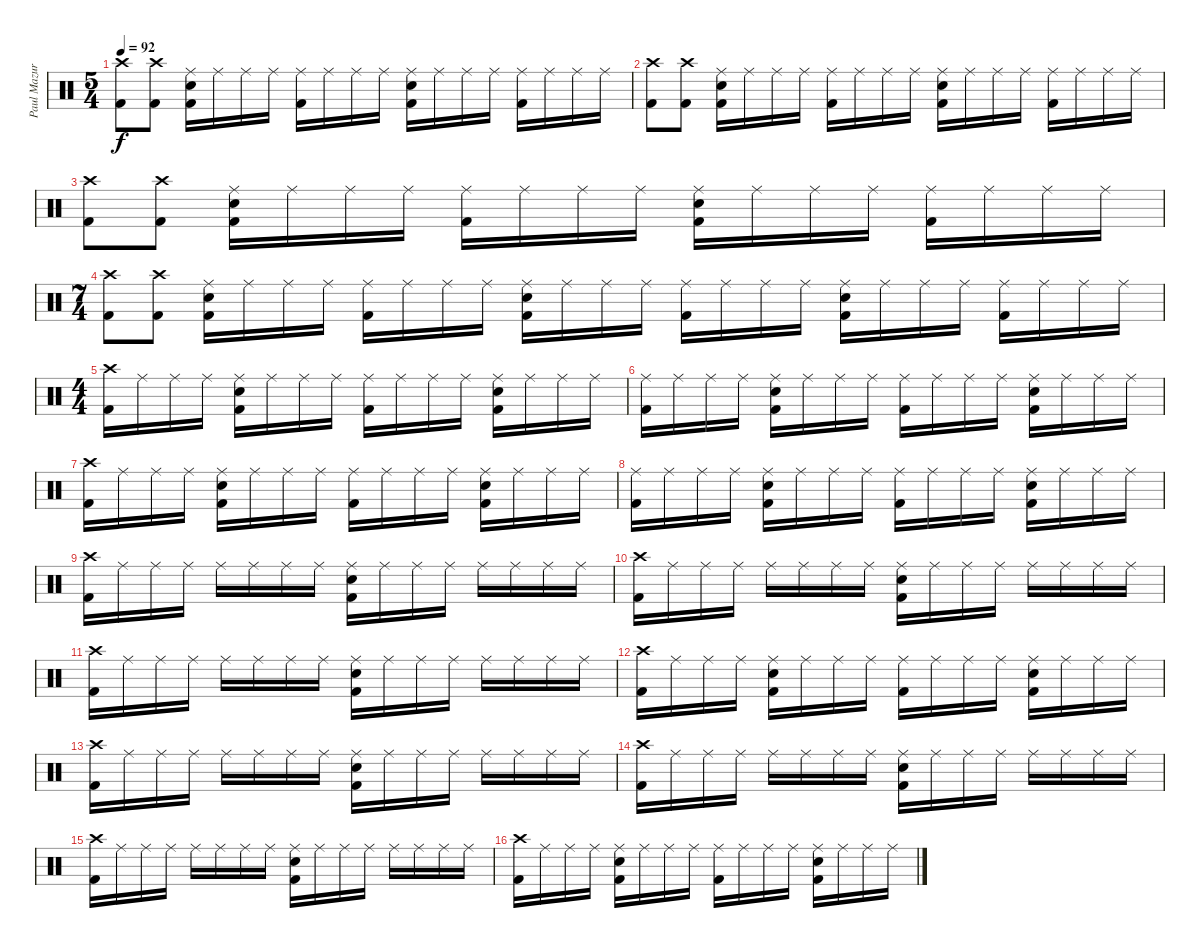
\track ("Paul Mazurkiewicz" "Paul Mazur") {instrument percussion}
\staff {score}
\articulation defaults
\ts (5 4)
\tempo 92
\clef neutral
\ks c
("Crash high (hit)" "Kick (hit) 2").8{dy f} ("Crash high (hit)" "Kick (hit) 2").8 ("Ride (middle)" "Snare (hit) 2" "Kick (hit) 2").16 "Ride (middle)".16 "Ride (middle)".16 "Ride (middle)".16 ("Ride (middle)" "Kick (hit) 2").16 "Ride (middle)".16 "Ride (middle)".16 "Ride (middle)".16 ("Ride (middle)" "Snare (hit) 2" "Kick (hit) 2").16 "Ride (middle)".16 "Ride (middle)".16 "Ride (middle)".16 ("Ride (middle)" "Kick (hit) 2").16 "Ride (middle)".16 "Ride (middle)".16 "Ride (middle)".16 |
("Crash high (hit)" "Kick (hit) 2").8 ("Crash high (hit)" "Kick (hit) 2").8 ("Ride (middle)" "Snare (hit) 2" "Kick (hit) 2").16 "Ride (middle)".16 "Ride (middle)".16 "Ride (middle)".16 ("Ride (middle)" "Kick (hit) 2").16 "Ride (middle)".16 "Ride (middle)".16 "Ride (middle)".16 ("Ride (middle)" "Snare (hit) 2" "Kick (hit) 2").16 "Ride (middle)".16 "Ride (middle)".16 "Ride (middle)".16 ("Ride (middle)" "Kick (hit) 2").16 "Ride (middle)".16 "Ride (middle)".16 "Ride (middle)".16 |
("Crash high (hit)" "Kick (hit) 2").8 ("Crash high (hit)" "Kick (hit) 2").8 ("Ride (middle)" "Snare (hit) 2" "Kick (hit) 2").16 "Ride (middle)".16 "Ride (middle)".16 "Ride (middle)".16 ("Ride (middle)" "Kick (hit) 2").16 "Ride (middle)".16 "Ride (middle)".16 "Ride (middle)".16 ("Ride (middle)" "Snare (hit) 2" "Kick (hit) 2").16 "Ride (middle)".16 "Ride (middle)".16 "Ride (middle)".16 ("Ride (middle)" "Kick (hit) 2").16 "Ride (middle)".16 "Ride (middle)".16 "Ride (middle)".16 |
\ts (7 4)
("Crash high (hit)" "Kick (hit) 2").8 ("Crash high (hit)" "Kick (hit) 2").8 ("Ride (middle)" "Snare (hit) 2" "Kick (hit) 2").16 "Ride (middle)".16 "Ride (middle)".16 "Ride (middle)".16 ("Ride (middle)" "Kick (hit) 2").16 "Ride (middle)".16 "Ride (middle)".16 "Ride (middle)".16 ("Ride (middle)" "Snare (hit) 2" "Kick (hit) 2").16 "Ride (middle)".16 "Ride (middle)".16 "Ride (middle)".16 ("Ride (middle)" "Kick (hit) 2").16 "Ride (middle)".16 "Ride (middle)".16 "Ride (middle)".16 ("Ride (middle)" "Snare (hit) 2" "Kick (hit) 2").16 "Ride (middle)".16 "Ride (middle)".16 "Ride (middle)".16 ("Ride (middle)" "Kick (hit) 2").16 "Ride (middle)".16 "Ride (middle)".16 "Ride (middle)".16 |
\ts (4 4)
("Crash high (hit)" "Kick (hit) 2").16 "Ride (middle)".16 "Ride (middle)".16 "Ride (middle)".16 ("Ride (middle)" "Snare (hit) 2" "Kick (hit) 2").16 "Ride (middle)".16 "Ride (middle)".16 "Ride (middle)".16 ("Ride (middle)" "Kick (hit) 2").16 "Ride (middle)".16 "Ride (middle)".16 "Ride (middle)".16 ("Ride (middle)" "Snare (hit) 2" "Kick (hit) 2").16 "Ride (middle)".16 "Ride (middle)".16 "Ride (middle)".16 |
("Ride (middle)" "Kick (hit) 2").16 "Ride (middle)".16 "Ride (middle)".16 "Ride (middle)".16 ("Ride (middle)" "Snare (hit) 2" "Kick (hit) 2").16 "Ride (middle)".16 "Ride (middle)".16 "Ride (middle)".16 ("Ride (middle)" "Kick (hit) 2").16 "Ride (middle)".16 "Ride (middle)".16 "Ride (middle)".16 ("Ride (middle)" "Snare (hit) 2" "Kick (hit) 2").16 "Ride (middle)".16 "Ride (middle)".16 "Ride (middle)".16 |
("Crash high (hit)" "Kick (hit) 2").16 "Ride (middle)".16 "Ride (middle)".16 "Ride (middle)".16 ("Ride (middle)" "Snare (hit) 2" "Kick (hit) 2").16 "Ride (middle)".16 "Ride (middle)".16 "Ride (middle)".16 ("Ride (middle)" "Kick (hit) 2").16 "Ride (middle)".16 "Ride (middle)".16 "Ride (middle)".16 ("Ride (middle)" "Snare (hit) 2" "Kick (hit) 2").16 "Ride (middle)".16 "Ride (middle)".16 "Ride (middle)".16 |
("Ride (middle)" "Kick (hit) 2").16 "Ride (middle)".16 "Ride (middle)".16 "Ride (middle)".16 ("Ride (middle)" "Snare (hit) 2" "Kick (hit) 2").16 "Ride (middle)".16 "Ride (middle)".16 "Ride (middle)".16 ("Ride (middle)" "Kick (hit) 2").16 "Ride (middle)".16 "Ride (middle)".16 "Ride (middle)".16 ("Ride (middle)" "Snare (hit) 2" "Kick (hit) 2").16 "Ride (middle)".16 "Ride (middle)".16 "Ride (middle)".16 |
("Crash high (hit)" "Kick (hit) 2").16 "Ride (middle)".16 "Ride (middle)".16 "Ride (middle)".16 "Ride (middle)".16 "Ride (middle)".16 "Ride (middle)".16 "Ride (middle)".16 ("Ride (middle)" "Snare (hit) 2" "Kick (hit) 2").16 "Ride (middle)".16 "Ride (middle)".16 "Ride (middle)".16 "Ride (middle)".16 "Ride (middle)".16 "Ride (middle)".16 "Ride (middle)".16 |
("Crash high (hit)" "Kick (hit) 2").16 "Ride (middle)".16 "Ride (middle)".16 "Ride (middle)".16 "Ride (middle)".16 "Ride (middle)".16 "Ride (middle)".16 "Ride (middle)".16 ("Ride (middle)" "Snare (hit) 2" "Kick (hit) 2").16 "Ride (middle)".16 "Ride (middle)".16 "Ride (middle)".16 "Ride (middle)".16 "Ride (middle)".16 "Ride (middle)".16 "Ride (middle)".16 |
("Crash high (hit)" "Kick (hit) 2").16 "Ride (middle)".16 "Ride (middle)".16 "Ride (middle)".16 "Ride (middle)".16 "Ride (middle)".16 "Ride (middle)".16 "Ride (middle)".16 ("Ride (middle)" "Snare (hit) 2" "Kick (hit) 2").16 "Ride (middle)".16 "Ride (middle)".16 "Ride (middle)".16 "Ride (middle)".16 "Ride (middle)".16 "Ride (middle)".16 "Ride (middle)".16 |
("Crash high (hit)" "Kick (hit) 2").16 "Ride (middle)".16 "Ride (middle)".16 "Ride (middle)".16 ("Ride (middle)" "Snare (hit) 2" "Kick (hit) 2").16 "Ride (middle)".16 "Ride (middle)".16 "Ride (middle)".16 ("Ride (middle)" "Kick (hit) 2").16 "Ride (middle)".16 "Ride (middle)".16 "Ride (middle)".16 ("Ride (middle)" "Snare (hit) 2" "Kick (hit) 2").16 "Ride (middle)".16 "Ride (middle)".16 "Ride (middle)".16 |
("Crash high (hit)" "Kick (hit) 2").16 "Ride (middle)".16 "Ride (middle)".16 "Ride (middle)".16 "Ride (middle)".16 "Ride (middle)".16 "Ride (middle)".16 "Ride (middle)".16 ("Ride (middle)" "Snare (hit) 2" "Kick (hit) 2").16 "Ride (middle)".16 "Ride (middle)".16 "Ride (middle)".16 "Ride (middle)".16 "Ride (middle)".16 "Ride (middle)".16 "Ride (middle)".16 |
("Crash high (hit)" "Kick (hit) 2").16 "Ride (middle)".16 "Ride (middle)".16 "Ride (middle)".16 "Ride (middle)".16 "Ride (middle)".16 "Ride (middle)".16 "Ride (middle)".16 ("Ride (middle)" "Snare (hit) 2" "Kick (hit) 2").16 "Ride (middle)".16 "Ride (middle)".16 "Ride (middle)".16 "Ride (middle)".16 "Ride (middle)".16 "Ride (middle)".16 "Ride (middle)".16 |
("Crash high (hit)" "Kick (hit) 2").16 "Ride (middle)".16 "Ride (middle)".16 "Ride (middle)".16 "Ride (middle)".16 "Ride (middle)".16 "Ride (middle)".16 "Ride (middle)".16 ("Ride (middle)" "Snare (hit) 2" "Kick (hit) 2").16 "Ride (middle)".16 "Ride (middle)".16 "Ride (middle)".16 "Ride (middle)".16 "Ride (middle)".16 "Ride (middle)".16 "Ride (middle)".16 |
("Crash high (hit)" "Kick (hit) 2").16 "Ride (middle)".16 "Ride (middle)".16 "Ride (middle)".16 ("Ride (middle)" "Snare (hit) 2" "Kick (hit) 2").16 "Ride (middle)".16 "Ride (middle)".16 "Ride (middle)".16 ("Ride (middle)" "Kick (hit) 2").16 "Ride (middle)".16 "Ride (middle)".16 "Ride (middle)".16 ("Ride (middle)" "Snare (hit) 2" "Kick (hit) 2").16 "Ride (middle)".16 "Ride (middle)".16 "Ride (middle)".16
